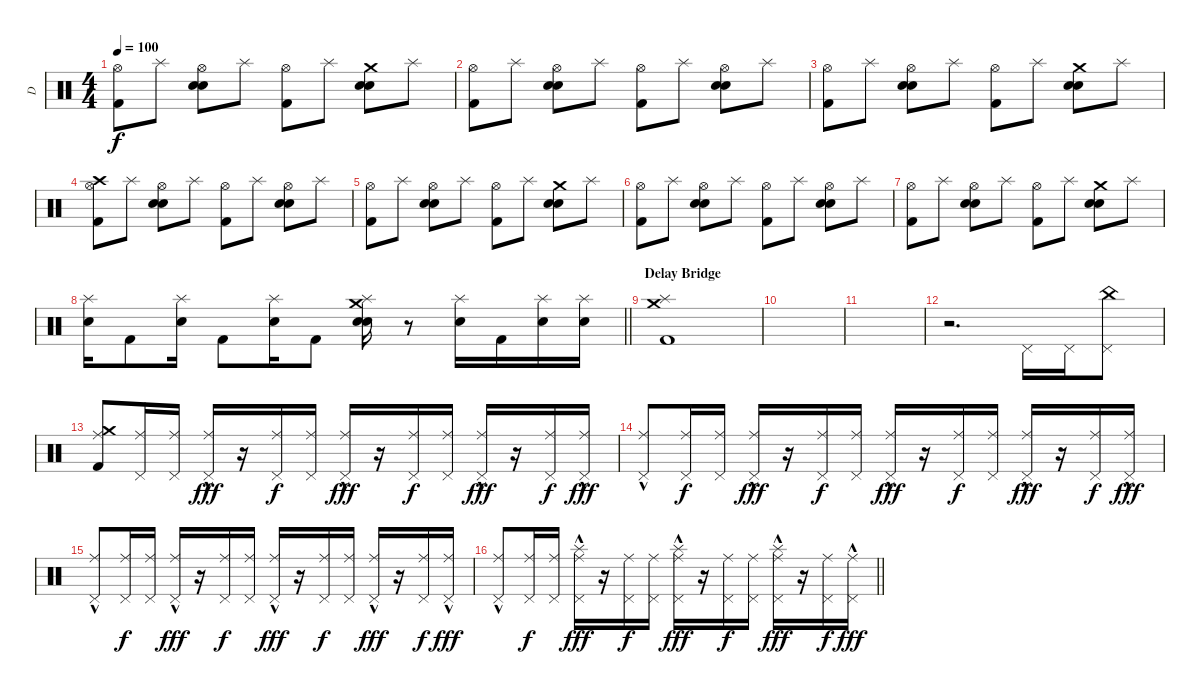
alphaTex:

\track ("D" "D") {instrument percussion}
\staff {score}
\articulation defaults
\ts (4 4)
\tempo 100
\clef neutral
\ks c
("Kick (hit) 2" "Hi-Hat (open)").8{dy f} "Splash (hit)".8 ("Electric Snare (hit)" "Electric Snare (hit)" "Hi-Hat (open)").8 "Splash (hit)".8 ("Kick (hit) 2" "Hi-Hat (open)").8 "Splash (hit)".8 ("Crash medium (hit)" "Electric Snare (hit)" "Electric Snare (hit)").8 "Splash (hit)".8 |
("Kick (hit) 2" "Hi-Hat (open)").8 "Splash (hit)".8 ("Electric Snare (hit)" "Electric Snare (hit)" "Hi-Hat (open)").8 "Splash (hit)".8 ("Kick (hit) 2" "Hi-Hat (open)").8 "Splash (hit)".8 ("Electric Snare (hit)" "Electric Snare (hit)" "Hi-Hat (open)").8 "Splash (hit)".8 |
("Kick (hit) 2" "Hi-Hat (open)").8 "Splash (hit)".8 ("Electric Snare (hit)" "Electric Snare (hit)" "Hi-Hat (open)").8 "Splash (hit)".8 ("Kick (hit) 2" "Hi-Hat (open)").8 "Splash (hit)".8 ("Crash medium (hit)" "Electric Snare (hit)" "Electric Snare (hit)").8 "Splash (hit)".8 |
("Crash high (hit)" "Kick (hit) 2" "Hi-Hat (open)").8 "Splash (hit)".8 ("Electric Snare (hit)" "Electric Snare (hit)" "Hi-Hat (open)").8 "Splash (hit)".8 ("Kick (hit) 2" "Hi-Hat (open)").8 "Splash (hit)".8 ("Electric Snare (hit)" "Electric Snare (hit)" "Hi-Hat (open)").8 "Splash (hit)".8 |
("Kick (hit) 2" "Hi-Hat (open)").8 "Splash (hit)".8 ("Electric Snare (hit)" "Electric Snare (hit)" "Hi-Hat (open)").8 "Splash (hit)".8 ("Kick (hit) 2" "Hi-Hat (open)").8 "Splash (hit)".8 ("Crash medium (hit)" "Electric Snare (hit)" "Electric Snare (hit)").8 "Splash (hit)".8 |
("Kick (hit) 2" "Hi-Hat (open)").8 "Splash (hit)".8 ("Electric Snare (hit)" "Electric Snare (hit)" "Hi-Hat (open)").8 "Splash (hit)".8 ("Kick (hit) 2" "Hi-Hat (open)").8 "Splash (hit)".8 ("Electric Snare (hit)" "Electric Snare (hit)" "Hi-Hat (open)").8 "Splash (hit)".8 |
("Kick (hit) 2" "Hi-Hat (open)").8 "Splash (hit)".8 ("Electric Snare (hit)" "Electric Snare (hit)" "Hi-Hat (open)").8 "Splash (hit)".8 ("Kick (hit) 2" "Hi-Hat (open)").8 "Splash (hit)".8 ("Crash medium (hit)" "Electric Snare (hit)" "Electric Snare (hit)").8 "Splash (hit)".8 |
\barLineRight lightlight
("Electric Snare (hit)" "Splash (hit)").16 "Kick (hit) 2".8 ("Electric Snare (hit)" "Splash (hit)").16 "Kick (hit) 2".8 ("Electric Snare (hit)" "Splash (hit)").16 "Kick (hit) 2".8 ("Crash medium (hit)" "Electric Snare (hit)" "Electric Snare (hit)" "Splash (hit)").16 r.8 ("Electric Snare (hit)" "Splash (hit)").16 "Kick (hit) 2".16 ("Electric Snare (hit)" "Splash (hit)").16 ("Electric Snare (hit)" "Splash (hit)").16 |
\section ("" "Delay Bridge")
("Crash medium (hit)" "Splash (hit)" "Kick (hit) 2").1 |
|
|
r.2{d} "Pedal Hi-Hat (hit)".16 "Pedal Hi-Hat (hit)".16 ("China (hit)" "Pedal Hi-Hat (hit)").8 |
("Crash medium (hit)" "Ride (middle)" "Kick (hit) 2").8 ("Ride (middle)" "Pedal Hi-Hat (hit)").16 ("Ride (middle)" "Pedal Hi-Hat (hit)").16 ("Ride (middle)"{hac} "Pedal Hi-Hat (hit)"{hac}).16{dy fff} r.16 ("Ride (middle)" "Pedal Hi-Hat (hit)").16{dy f} ("Ride (middle)" "Pedal Hi-Hat (hit)").16 ("Ride (middle)"{hac} "Pedal Hi-Hat (hit)"{hac}).16{dy fff} r.16 ("Ride (middle)" "Pedal Hi-Hat (hit)").16{dy f} ("Ride (middle)" "Pedal Hi-Hat (hit)").16 ("Ride (middle)"{hac} "Pedal Hi-Hat (hit)"{hac}).16{dy fff} r.16 ("Ride (middle)" "Pedal Hi-Hat (hit)").16{dy f} ("Ride (middle)"{hac} "Pedal Hi-Hat (hit)"{hac}).16{dy fff} |
("Ride (middle)" "Pedal Hi-Hat (hit)"{hac}).8 ("Ride (middle)" "Pedal Hi-Hat (hit)").16{dy f} ("Ride (middle)" "Pedal Hi-Hat (hit)").16 ("Ride (middle)"{hac} "Pedal Hi-Hat (hit)"{hac}).16{dy fff} r.16 ("Ride (middle)" "Pedal Hi-Hat (hit)").16{dy f} ("Ride (middle)" "Pedal Hi-Hat (hit)").16 ("Ride (middle)"{hac} "Pedal Hi-Hat (hit)"{hac}).16{dy fff} r.16 ("Ride (middle)" "Pedal Hi-Hat (hit)").16{dy f} ("Ride (middle)" "Pedal Hi-Hat (hit)").16 ("Ride (middle)"{hac} "Pedal Hi-Hat (hit)"{hac}).16{dy fff} r.16 ("Ride (middle)" "Pedal Hi-Hat (hit)").16{dy f} ("Ride (middle)"{hac} "Pedal Hi-Hat (hit)"{hac}).16{dy fff} |
("Ride (middle)" "Pedal Hi-Hat (hit)"{hac}).8 ("Ride (middle)" "Pedal Hi-Hat (hit)").16{dy f} ("Ride (middle)" "Pedal Hi-Hat (hit)").16 ("Ride (middle)"{hac} "Pedal Hi-Hat (hit)"{hac}).16{dy fff} r.16 ("Ride (middle)" "Pedal Hi-Hat (hit)").16{dy f} ("Ride (middle)" "Pedal Hi-Hat (hit)").16 ("Ride (middle)"{hac} "Pedal Hi-Hat (hit)"{hac}).16{dy fff} r.16 ("Ride (middle)" "Pedal Hi-Hat (hit)").16{dy f} ("Ride (middle)" "Pedal Hi-Hat (hit)").16 ("Ride (middle)"{hac} "Pedal Hi-Hat (hit)"{hac}).16{dy fff} r.16 ("Ride (middle)" "Pedal Hi-Hat (hit)").16{dy f} ("Ride (middle)"{hac} "Pedal Hi-Hat (hit)"{hac}).16{dy fff} |
\barLineRight lightlight
("Ride (middle)" "Pedal Hi-Hat (hit)"{hac}).8 ("Ride (middle)" "Pedal Hi-Hat (hit)").16{dy f} ("Ride (middle)" "Pedal Hi-Hat (hit)").16 ("Splash (hit)" "Ride (middle)"{hac} "Pedal Hi-Hat (hit)"{hac}).16{dy fff} r.16 ("Ride (middle)" "Pedal Hi-Hat (hit)").16{dy f} ("Ride (middle)" "Pedal Hi-Hat (hit)").16 ("Splash (hit)" "Ride (middle)"{hac} "Pedal Hi-Hat (hit)"{hac}).16{dy fff} r.16 ("Ride (middle)" "Pedal Hi-Hat (hit)").16{dy f} ("Ride (middle)" "Pedal Hi-Hat (hit)").16 ("Splash (hit)" "Ride (middle)"{hac} "Pedal Hi-Hat (hit)"{hac}).16{dy fff} r.16 ("Ride (middle)" "Pedal Hi-Hat (hit)").16{dy f} ("Ride (middle)"{hac} "Pedal Hi-Hat (hit)"{hac}).16{dy fff}
